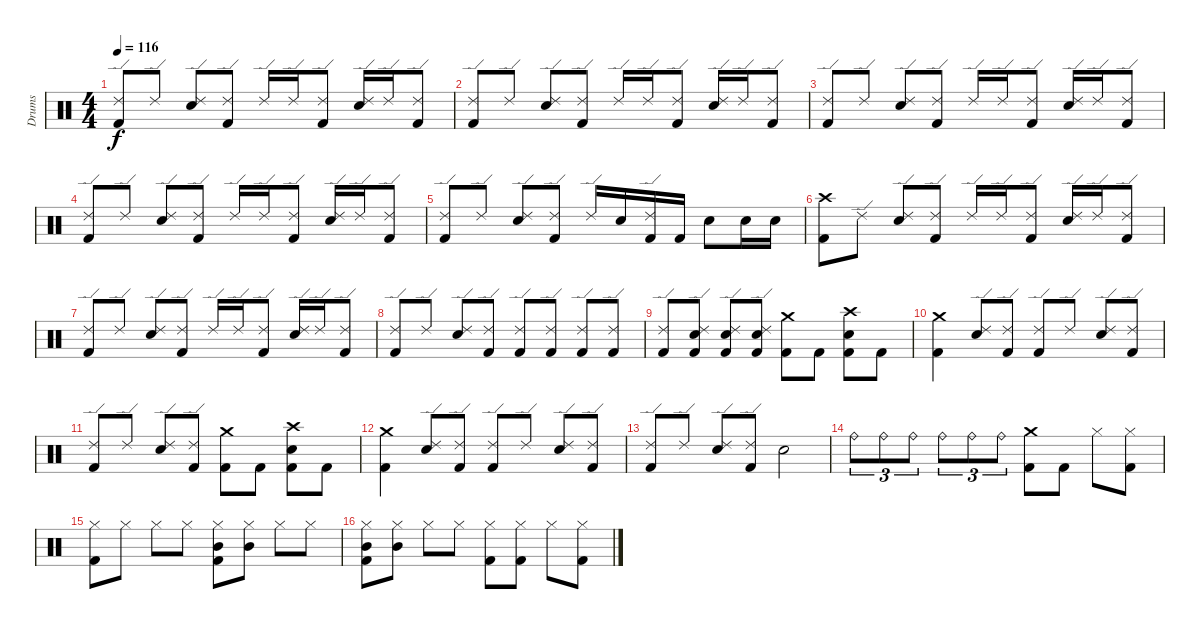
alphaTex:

\track ("Drums" "Drums") {instrument percussion}
\staff {score}
\articulation defaults
\ts (4 4)
\tempo 116
\clef neutral
\ks c
("Kick (hit) 2" "Ride (edge) 2").8{dy f} "Ride (edge) 2".8 ("Electric Snare (hit)" "Ride (edge) 2").8 ("Kick (hit) 2" "Ride (edge) 2").8 "Ride (edge) 2".16 "Ride (edge) 2".16 ("Kick (hit) 2" "Ride (edge) 2").8 ("Electric Snare (hit)" "Ride (edge) 2").16 "Ride (edge) 2".16 ("Kick (hit) 2" "Ride (edge) 2").8 |
("Kick (hit) 2" "Ride (edge) 2").8 "Ride (edge) 2".8 ("Electric Snare (hit)" "Ride (edge) 2").8 ("Kick (hit) 2" "Ride (edge) 2").8 "Ride (edge) 2".16 "Ride (edge) 2".16 ("Kick (hit) 2" "Ride (edge) 2").8 ("Electric Snare (hit)" "Ride (edge) 2").16 "Ride (edge) 2".16 ("Kick (hit) 2" "Ride (edge) 2").8 |
("Kick (hit) 2" "Ride (edge) 2").8 "Ride (edge) 2".8 ("Electric Snare (hit)" "Ride (edge) 2").8 ("Kick (hit) 2" "Ride (edge) 2").8 "Ride (edge) 2".16 "Ride (edge) 2".16 ("Kick (hit) 2" "Ride (edge) 2").8 ("Electric Snare (hit)" "Ride (edge) 2").16 "Ride (edge) 2".16 ("Kick (hit) 2" "Ride (edge) 2").8 |
("Kick (hit) 2" "Ride (edge) 2").8 "Ride (edge) 2".8 ("Electric Snare (hit)" "Ride (edge) 2").8 ("Kick (hit) 2" "Ride (edge) 2").8 "Ride (edge) 2".16 "Ride (edge) 2".16 ("Kick (hit) 2" "Ride (edge) 2").8 ("Electric Snare (hit)" "Ride (edge) 2").16 "Ride (edge) 2".16 ("Kick (hit) 2" "Ride (edge) 2").8 |
("Kick (hit) 2" "Ride (edge) 2").8 "Ride (edge) 2".8 ("Electric Snare (hit)" "Ride (edge) 2").8 ("Kick (hit) 2" "Ride (edge) 2").8 "Ride (edge) 2".16 "Electric Snare (hit)".16 ("Kick (hit) 2" "Ride (edge) 2").16 "Kick (hit) 2".16 "Electric Snare (hit)".8 "Electric Snare (hit)".16 "Electric Snare (hit)".16 |
("Kick (hit) 2" "Crash high (hit)").8 "Ride (edge) 2".8 ("Electric Snare (hit)" "Ride (edge) 2").8 ("Kick (hit) 2" "Ride (edge) 2").8 "Ride (edge) 2".16 "Ride (edge) 2".16 ("Kick (hit) 2" "Ride (edge) 2").8 ("Electric Snare (hit)" "Ride (edge) 2").16 "Ride (edge) 2".16 ("Kick (hit) 2" "Ride (edge) 2").8 |
("Kick (hit) 2" "Ride (edge) 2").8 "Ride (edge) 2".8 ("Electric Snare (hit)" "Ride (edge) 2").8 ("Kick (hit) 2" "Ride (edge) 2").8 "Ride (edge) 2".16 "Ride (edge) 2".16 ("Kick (hit) 2" "Ride (edge) 2").8 ("Electric Snare (hit)" "Ride (edge) 2").16 "Ride (edge) 2".16 ("Kick (hit) 2" "Ride (edge) 2").8 |
("Kick (hit) 2" "Ride (edge) 2").8 "Ride (edge) 2".8 ("Electric Snare (hit)" "Ride (edge) 2").8 ("Kick (hit) 2" "Ride (edge) 2").8 ("Kick (hit) 2" "Ride (edge) 2").8 ("Kick (hit) 2" "Ride (edge) 2").8 ("Kick (hit) 2" "Ride (edge) 2").8 ("Kick (hit) 2" "Ride (edge) 2").8 |
("Kick (hit) 2" "Ride (edge) 2").8 ("Kick (hit) 2" "Electric Snare (hit)" "Ride (edge) 2").8 ("Kick (hit) 2" "Electric Snare (hit)" "Ride (edge) 2").8 ("Kick (hit) 2" "Electric Snare (hit)" "Ride (edge) 2").8 ("Kick (hit) 2" "Crash medium (hit)").8 "Kick (hit) 2".8 ("Kick (hit) 2" "Electric Snare (hit)" "Crash high (hit)").8 "Kick (hit) 2".8 |
("Kick (hit) 2" "Crash medium (hit)").4 ("Electric Snare (hit)" "Ride (edge) 2").8 ("Kick (hit) 2" "Ride (edge) 2").8 ("Kick (hit) 2" "Ride (edge) 2").8 "Ride (edge) 2".8 ("Electric Snare (hit)" "Ride (edge) 2").8 ("Kick (hit) 2" "Ride (edge) 2").8 |
("Kick (hit) 2" "Ride (edge) 2").8 "Ride (edge) 2".8 ("Electric Snare (hit)" "Ride (edge) 2").8 ("Kick (hit) 2" "Ride (edge) 2").8 ("Kick (hit) 2" "Crash medium (hit)").8 "Kick (hit) 2".8 ("Kick (hit) 2" "Electric Snare (hit)" "Crash high (hit)").8 "Kick (hit) 2".8 |
("Kick (hit) 2" "Crash medium (hit)").4 ("Electric Snare (hit)" "Ride (edge) 2").8 ("Kick (hit) 2" "Ride (edge) 2").8 ("Kick (hit) 2" "Ride (edge) 2").8 "Ride (edge) 2".8 ("Electric Snare (hit)" "Ride (edge) 2").8 ("Kick (hit) 2" "Ride (edge) 2").8 |
("Kick (hit) 2" "Ride (edge) 2").8 "Ride (edge) 2".8 ("Electric Snare (hit)" "Ride (edge) 2").8 ("Kick (hit) 2" "Ride (edge) 2").8 "Electric Snare (hit)".2 |
"Ride (bell)".8{tu (3 2)} "Ride (bell)".8{tu (3 2)} "Ride (bell)".8{tu (3 2)} "Ride (bell)".8{tu (3 2)} "Ride (bell)".8{tu (3 2)} "Ride (bell)".8{tu (3 2)} ("Kick (hit) 2" "Crash medium (hit)").8 "Kick (hit) 2".8 "Hi-Hat (closed)".8 ("Kick (hit) 2" "Hi-Hat (closed)").8 |
("Kick (hit) 2" "Hi-Hat (closed)").8 "Hi-Hat (closed)".8 "Hi-Hat (closed)".8 "Hi-Hat (closed)".8 ("Kick (hit) 2" "Mid Tom (hit)" "Hi-Hat (closed)").8 ("Mid Tom (hit)" "Hi-Hat (closed)").8 "Hi-Hat (closed)".8 "Hi-Hat (closed)".8 |
("Kick (hit) 2" "Mid Tom (hit)" "Hi-Hat (closed)").8 ("Mid Tom (hit)" "Hi-Hat (closed)").8 "Hi-Hat (closed)".8 "Hi-Hat (closed)".8 ("Kick (hit) 2" "Hi-Hat (closed)").8 ("Kick (hit) 2" "Hi-Hat (closed)").8 "Hi-Hat (closed)".8 ("Kick (hit) 2" "Hi-Hat (closed)").8
